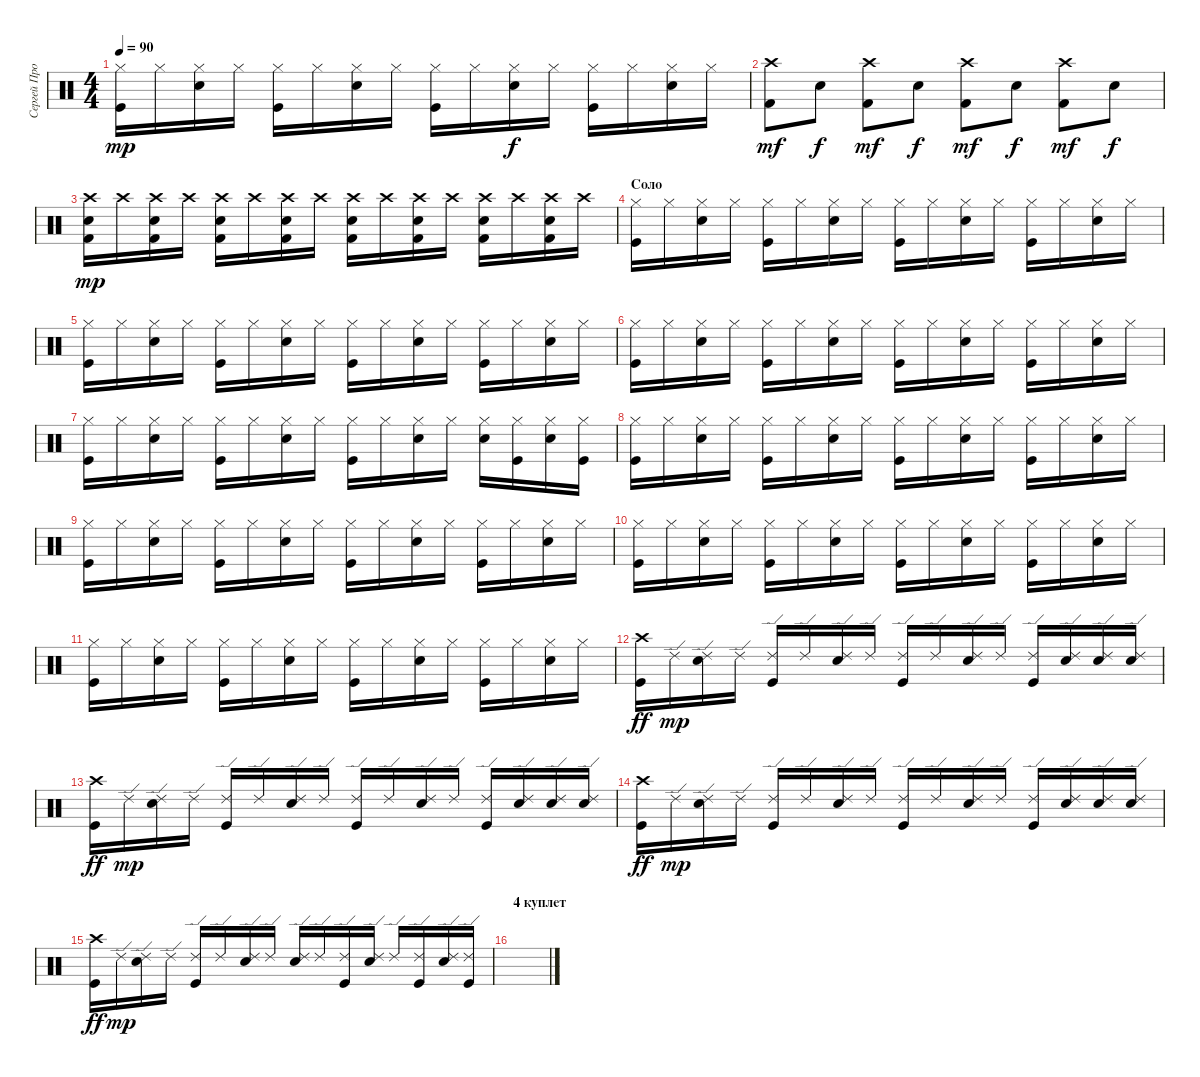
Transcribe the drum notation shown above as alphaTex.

\track ("Сергей Прокофьев" "Сергей Про") {instrument percussion}
\staff {score}
\articulation defaults
\ts (4 4)
\tempo 90
\clef neutral
\ks c
("Hi-Hat (closed)" "Kick (hit)").16{dy mp} "Hi-Hat (closed)".16 ("Hi-Hat (closed)" "Electric Snare (hit)").16 "Hi-Hat (closed)".16 ("Hi-Hat (closed)" "Kick (hit)").16 "Hi-Hat (closed)".16 ("Hi-Hat (closed)" "Electric Snare (hit)").16 "Hi-Hat (closed)".16 ("Hi-Hat (closed)" "Kick (hit)").16 "Hi-Hat (closed)".16 ("Hi-Hat (closed)" "Electric Snare (hit)").16{dy f} "Hi-Hat (closed)".16 ("Hi-Hat (closed)" "Kick (hit)").16 "Hi-Hat (closed)".16 ("Hi-Hat (closed)" "Electric Snare (hit)").16 "Hi-Hat (closed)".16 |
("Crash high (hit)" "Kick (hit) 2").8{dy mf} "Electric Snare (hit)".8{dy f} ("Crash high (hit)" "Kick (hit) 2").8{dy mf} "Electric Snare (hit)".8{dy f} ("Crash high (hit)" "Kick (hit) 2").8{dy mf} "Electric Snare (hit)".8{dy f} ("Crash high (hit)" "Kick (hit) 2").8{dy mf} "Electric Snare (hit)".8{dy f} |
("Crash high (hit)" "Electric Snare (hit)" "Kick (hit) 2").16{dy mp} "Crash high (hit)".16 ("Crash high (hit)" "Electric Snare (hit)" "Kick (hit) 2").16 "Crash high (hit)".16 ("Crash high (hit)" "Electric Snare (hit)" "Kick (hit) 2").16 "Crash high (hit)".16 ("Crash high (hit)" "Electric Snare (hit)" "Kick (hit) 2").16 "Crash high (hit)".16 ("Crash high (hit)" "Electric Snare (hit)" "Kick (hit) 2").16 "Crash high (hit)".16 ("Crash high (hit)" "Electric Snare (hit)" "Kick (hit) 2").16 "Crash high (hit)".16 ("Crash high (hit)" "Electric Snare (hit)" "Kick (hit) 2").16 "Crash high (hit)".16 ("Crash high (hit)" "Electric Snare (hit)" "Kick (hit) 2").16 "Crash high (hit)".16 |
\section ("" "Соло")
("Hi-Hat (closed)" "Kick (hit)").16 "Hi-Hat (closed)".16 ("Hi-Hat (closed)" "Electric Snare (hit)").16 "Hi-Hat (closed)".16 ("Hi-Hat (closed)" "Kick (hit)").16 "Hi-Hat (closed)".16 ("Hi-Hat (closed)" "Electric Snare (hit)").16 "Hi-Hat (closed)".16 ("Hi-Hat (closed)" "Kick (hit)").16 "Hi-Hat (closed)".16 ("Hi-Hat (closed)" "Electric Snare (hit)").16 "Hi-Hat (closed)".16 ("Hi-Hat (closed)" "Kick (hit)").16 "Hi-Hat (closed)".16 ("Hi-Hat (closed)" "Electric Snare (hit)").16 "Hi-Hat (closed)".16 |
("Hi-Hat (closed)" "Kick (hit)").16 "Hi-Hat (closed)".16 ("Hi-Hat (closed)" "Electric Snare (hit)").16 "Hi-Hat (closed)".16 ("Hi-Hat (closed)" "Kick (hit)").16 "Hi-Hat (closed)".16 ("Hi-Hat (closed)" "Electric Snare (hit)").16 "Hi-Hat (closed)".16 ("Hi-Hat (closed)" "Kick (hit)").16 "Hi-Hat (closed)".16 ("Hi-Hat (closed)" "Electric Snare (hit)").16 "Hi-Hat (closed)".16 ("Hi-Hat (closed)" "Kick (hit)").16 "Hi-Hat (closed)".16 ("Hi-Hat (closed)" "Electric Snare (hit)").16 "Hi-Hat (closed)".16 |
("Hi-Hat (closed)" "Kick (hit)").16 "Hi-Hat (closed)".16 ("Hi-Hat (closed)" "Electric Snare (hit)").16 "Hi-Hat (closed)".16 ("Hi-Hat (closed)" "Kick (hit)").16 "Hi-Hat (closed)".16 ("Hi-Hat (closed)" "Electric Snare (hit)").16 "Hi-Hat (closed)".16 ("Hi-Hat (closed)" "Kick (hit)").16 "Hi-Hat (closed)".16 ("Hi-Hat (closed)" "Electric Snare (hit)").16 "Hi-Hat (closed)".16 ("Hi-Hat (closed)" "Kick (hit)").16 "Hi-Hat (closed)".16 ("Hi-Hat (closed)" "Electric Snare (hit)").16 "Hi-Hat (closed)".16 |
("Hi-Hat (closed)" "Kick (hit)").16 "Hi-Hat (closed)".16 ("Hi-Hat (closed)" "Electric Snare (hit)").16 "Hi-Hat (closed)".16 ("Hi-Hat (closed)" "Kick (hit)").16 "Hi-Hat (closed)".16 ("Hi-Hat (closed)" "Electric Snare (hit)").16 "Hi-Hat (closed)".16 ("Hi-Hat (closed)" "Kick (hit)").16 "Hi-Hat (closed)".16 ("Hi-Hat (closed)" "Electric Snare (hit)").16 "Hi-Hat (closed)".16 ("Hi-Hat (closed)" "Electric Snare (hit)").16 ("Hi-Hat (closed)" "Kick (hit)").16 ("Hi-Hat (closed)" "Electric Snare (hit)").16 ("Hi-Hat (closed)" "Kick (hit)").16 |
("Hi-Hat (closed)" "Kick (hit)").16 "Hi-Hat (closed)".16 ("Hi-Hat (closed)" "Electric Snare (hit)").16 "Hi-Hat (closed)".16 ("Hi-Hat (closed)" "Kick (hit)").16 "Hi-Hat (closed)".16 ("Hi-Hat (closed)" "Electric Snare (hit)").16 "Hi-Hat (closed)".16 ("Hi-Hat (closed)" "Kick (hit)").16 "Hi-Hat (closed)".16 ("Hi-Hat (closed)" "Electric Snare (hit)").16 "Hi-Hat (closed)".16 ("Hi-Hat (closed)" "Kick (hit)").16 "Hi-Hat (closed)".16 ("Hi-Hat (closed)" "Electric Snare (hit)").16 "Hi-Hat (closed)".16 |
("Hi-Hat (closed)" "Kick (hit)").16 "Hi-Hat (closed)".16 ("Hi-Hat (closed)" "Electric Snare (hit)").16 "Hi-Hat (closed)".16 ("Hi-Hat (closed)" "Kick (hit)").16 "Hi-Hat (closed)".16 ("Hi-Hat (closed)" "Electric Snare (hit)").16 "Hi-Hat (closed)".16 ("Hi-Hat (closed)" "Kick (hit)").16 "Hi-Hat (closed)".16 ("Hi-Hat (closed)" "Electric Snare (hit)").16 "Hi-Hat (closed)".16 ("Hi-Hat (closed)" "Kick (hit)").16 "Hi-Hat (closed)".16 ("Hi-Hat (closed)" "Electric Snare (hit)").16 "Hi-Hat (closed)".16 |
("Hi-Hat (closed)" "Kick (hit)").16 "Hi-Hat (closed)".16 ("Hi-Hat (closed)" "Electric Snare (hit)").16 "Hi-Hat (closed)".16 ("Hi-Hat (closed)" "Kick (hit)").16 "Hi-Hat (closed)".16 ("Hi-Hat (closed)" "Electric Snare (hit)").16 "Hi-Hat (closed)".16 ("Hi-Hat (closed)" "Kick (hit)").16 "Hi-Hat (closed)".16 ("Hi-Hat (closed)" "Electric Snare (hit)").16 "Hi-Hat (closed)".16 ("Hi-Hat (closed)" "Kick (hit)").16 "Hi-Hat (closed)".16 ("Hi-Hat (closed)" "Electric Snare (hit)").16 "Hi-Hat (closed)".16 |
("Hi-Hat (closed)" "Kick (hit)").16 "Hi-Hat (closed)".16 ("Hi-Hat (closed)" "Electric Snare (hit)").16 "Hi-Hat (closed)".16 ("Hi-Hat (closed)" "Kick (hit)").16 "Hi-Hat (closed)".16 ("Hi-Hat (closed)" "Electric Snare (hit)").16 "Hi-Hat (closed)".16 ("Hi-Hat (closed)" "Kick (hit)").16 "Hi-Hat (closed)".16 ("Hi-Hat (closed)" "Electric Snare (hit)").16 "Hi-Hat (closed)".16 ("Hi-Hat (closed)" "Kick (hit)").16 "Hi-Hat (closed)".16 ("Hi-Hat (closed)" "Electric Snare (hit)").16 "Hi-Hat (closed)".16 |
("Crash high (hit)" "Kick (hit)").16{dy ff} "Ride (edge) 2".16{dy mp} ("Ride (edge) 2" "Electric Snare (hit)").16 "Ride (edge) 2".16 ("Ride (edge) 2" "Kick (hit)").16 "Ride (edge) 2".16 ("Ride (edge) 2" "Electric Snare (hit)").16 "Ride (edge) 2".16 ("Ride (edge) 2" "Kick (hit)").16 "Ride (edge) 2".16 ("Ride (edge) 2" "Electric Snare (hit)").16 "Ride (edge) 2".16 ("Ride (edge) 2" "Kick (hit)").16 ("Ride (edge) 2" "Electric Snare (hit)").16 ("Ride (edge) 2" "Electric Snare (hit)").16 ("Ride (edge) 2" "Electric Snare (hit)").16 |
("Crash high (hit)" "Kick (hit)").16{dy ff} "Ride (edge) 2".16{dy mp} ("Ride (edge) 2" "Electric Snare (hit)").16 "Ride (edge) 2".16 ("Ride (edge) 2" "Kick (hit)").16 "Ride (edge) 2".16 ("Ride (edge) 2" "Electric Snare (hit)").16 "Ride (edge) 2".16 ("Ride (edge) 2" "Kick (hit)").16 "Ride (edge) 2".16 ("Ride (edge) 2" "Electric Snare (hit)").16 "Ride (edge) 2".16 ("Ride (edge) 2" "Kick (hit)").16 ("Ride (edge) 2" "Electric Snare (hit)").16 ("Ride (edge) 2" "Electric Snare (hit)").16 ("Ride (edge) 2" "Electric Snare (hit)").16 |
("Crash high (hit)" "Kick (hit)").16{dy ff} "Ride (edge) 2".16{dy mp} ("Ride (edge) 2" "Electric Snare (hit)").16 "Ride (edge) 2".16 ("Ride (edge) 2" "Kick (hit)").16 "Ride (edge) 2".16 ("Ride (edge) 2" "Electric Snare (hit)").16 "Ride (edge) 2".16 ("Ride (edge) 2" "Kick (hit)").16 "Ride (edge) 2".16 ("Ride (edge) 2" "Electric Snare (hit)").16 "Ride (edge) 2".16 ("Ride (edge) 2" "Kick (hit)").16 ("Ride (edge) 2" "Electric Snare (hit)").16 ("Ride (edge) 2" "Electric Snare (hit)").16 ("Ride (edge) 2" "Electric Snare (hit)").16 |
("Crash high (hit)" "Kick (hit)").16{dy ff} "Ride (edge) 2".16{dy mp} ("Ride (edge) 2" "Electric Snare (hit)").16 "Ride (edge) 2".16 ("Ride (edge) 2" "Kick (hit)").16 "Ride (edge) 2".16 ("Ride (edge) 2" "Electric Snare (hit)").16 "Ride (edge) 2".16 ("Ride (edge) 2" "Electric Snare (hit)").16 "Ride (edge) 2".16 ("Ride (edge) 2" "Kick (hit)").16 ("Ride (edge) 2" "Electric Snare (hit)").16 "Ride (edge) 2".16 ("Ride (edge) 2" "Kick (hit)").16 ("Ride (edge) 2" "Electric Snare (hit)").16 ("Ride (edge) 2" "Kick (hit)").16 |
\section ("" "4 куплет")
